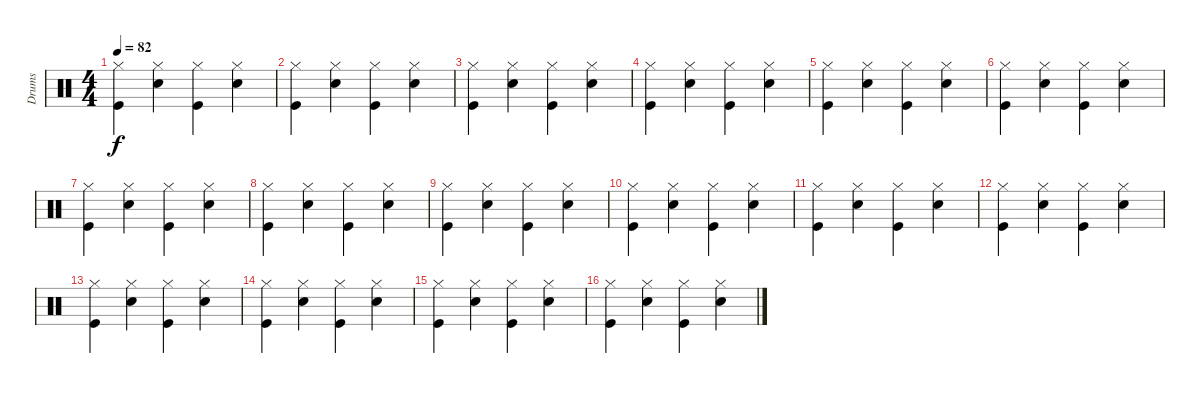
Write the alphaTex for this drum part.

\track ("Drums" "Drums") {instrument percussion}
\staff {score}
\articulation defaults
\ts (4 4)
\tempo 82
\clef neutral
\ks c
("Hi-Hat (closed)" "Kick (hit)").4{dy f} ("Hi-Hat (closed)" "Snare (hit) 2").4 ("Hi-Hat (closed)" "Kick (hit)").4 ("Hi-Hat (closed)" "Snare (hit) 2").4 |
("Hi-Hat (closed)" "Kick (hit)").4 ("Hi-Hat (closed)" "Snare (hit) 2").4 ("Hi-Hat (closed)" "Kick (hit)").4 ("Hi-Hat (closed)" "Snare (hit) 2").4 |
("Hi-Hat (closed)" "Kick (hit)").4 ("Hi-Hat (closed)" "Snare (hit) 2").4 ("Hi-Hat (closed)" "Kick (hit)").4 ("Hi-Hat (closed)" "Snare (hit) 2").4 |
("Hi-Hat (closed)" "Kick (hit)").4 ("Hi-Hat (closed)" "Snare (hit) 2").4 ("Hi-Hat (closed)" "Kick (hit)").4 ("Hi-Hat (closed)" "Snare (hit) 2").4 |
("Hi-Hat (closed)" "Kick (hit)").4 ("Hi-Hat (closed)" "Snare (hit) 2").4 ("Hi-Hat (closed)" "Kick (hit)").4 ("Hi-Hat (closed)" "Snare (hit) 2").4 |
("Hi-Hat (closed)" "Kick (hit)").4 ("Hi-Hat (closed)" "Snare (hit) 2").4 ("Hi-Hat (closed)" "Kick (hit)").4 ("Hi-Hat (closed)" "Snare (hit) 2").4 |
("Hi-Hat (closed)" "Kick (hit)").4 ("Hi-Hat (closed)" "Snare (hit) 2").4 ("Hi-Hat (closed)" "Kick (hit)").4 ("Hi-Hat (closed)" "Snare (hit) 2").4 |
("Hi-Hat (closed)" "Kick (hit)").4 ("Hi-Hat (closed)" "Snare (hit) 2").4 ("Hi-Hat (closed)" "Kick (hit)").4 ("Hi-Hat (closed)" "Snare (hit) 2").4 |
("Hi-Hat (closed)" "Kick (hit)").4 ("Hi-Hat (closed)" "Snare (hit) 2").4 ("Hi-Hat (closed)" "Kick (hit)").4 ("Hi-Hat (closed)" "Snare (hit) 2").4 |
("Hi-Hat (closed)" "Kick (hit)").4 ("Hi-Hat (closed)" "Snare (hit) 2").4 ("Hi-Hat (closed)" "Kick (hit)").4 ("Hi-Hat (closed)" "Snare (hit) 2").4 |
("Hi-Hat (closed)" "Kick (hit)").4 ("Hi-Hat (closed)" "Snare (hit) 2").4 ("Hi-Hat (closed)" "Kick (hit)").4 ("Hi-Hat (closed)" "Snare (hit) 2").4 |
("Hi-Hat (closed)" "Kick (hit)").4 ("Hi-Hat (closed)" "Snare (hit) 2").4 ("Hi-Hat (closed)" "Kick (hit)").4 ("Hi-Hat (closed)" "Snare (hit) 2").4 |
("Hi-Hat (closed)" "Kick (hit)").4 ("Hi-Hat (closed)" "Snare (hit) 2").4 ("Hi-Hat (closed)" "Kick (hit)").4 ("Hi-Hat (closed)" "Snare (hit) 2").4 |
("Hi-Hat (closed)" "Kick (hit)").4 ("Hi-Hat (closed)" "Snare (hit) 2").4 ("Hi-Hat (closed)" "Kick (hit)").4 ("Hi-Hat (closed)" "Snare (hit) 2").4 |
("Hi-Hat (closed)" "Kick (hit)").4 ("Hi-Hat (closed)" "Snare (hit) 2").4 ("Hi-Hat (closed)" "Kick (hit)").4 ("Hi-Hat (closed)" "Snare (hit) 2").4 |
("Hi-Hat (closed)" "Kick (hit)").4 ("Hi-Hat (closed)" "Snare (hit) 2").4 ("Hi-Hat (closed)" "Kick (hit)").4 ("Hi-Hat (closed)" "Snare (hit) 2").4
